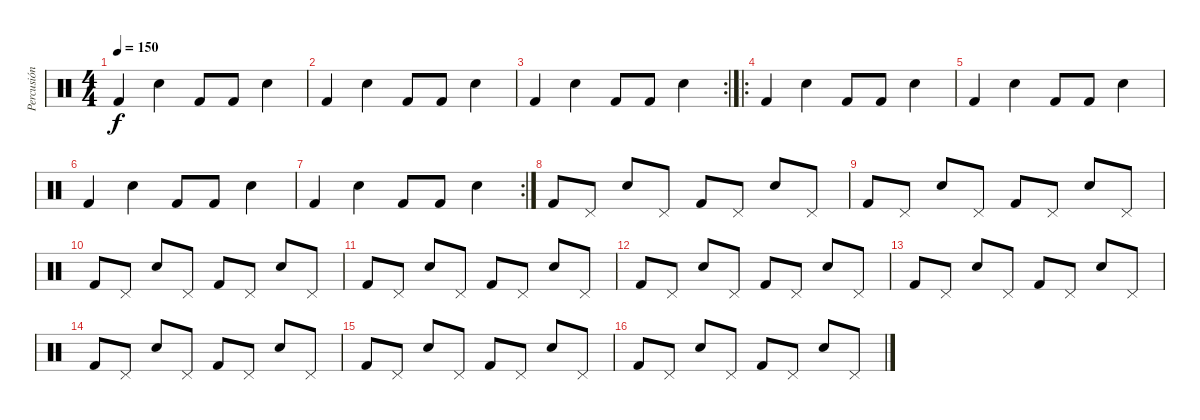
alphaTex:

\track ("Percusión" "Percusión") {instrument percussion}
\staff {score}
\articulation defaults
\ts (4 4)
\tempo 150
\clef neutral
\ks c "Kick (hit) 2".4{dy f} "Snare (hit) 2".4 "Kick (hit) 2".8 "Kick (hit) 2".8 "Snare (hit) 2".4
|
"Kick (hit) 2".4 "Snare (hit) 2".4 "Kick (hit) 2".8 "Kick (hit) 2".8 "Snare (hit) 2".4 |
\rc 2 "Kick (hit) 2".4 "Snare (hit) 2".4 "Kick (hit) 2".8 "Kick (hit) 2".8 "Snare (hit) 2".4
|
\ro "Kick (hit) 2".4 "Snare (hit) 2".4 "Kick (hit) 2".8 "Kick (hit) 2".8 "Snare (hit) 2".4
|
"Kick (hit) 2".4 "Snare (hit) 2".4 "Kick (hit) 2".8 "Kick (hit) 2".8 "Snare (hit) 2".4 |
"Kick (hit) 2".4 "Snare (hit) 2".4 "Kick (hit) 2".8 "Kick (hit) 2".8 "Snare (hit) 2".4 |
\rc 2 "Kick (hit) 2".4 "Snare (hit) 2".4 "Kick (hit) 2".8 "Kick (hit) 2".8 "Snare (hit) 2".4
|
"Kick (hit) 2".8 "Pedal Hi-Hat (hit)".8 "Snare (hit) 2".8 "Pedal Hi-Hat (hit)".8 "Kick (hit) 2".8 "Pedal Hi-Hat (hit)".8 "Snare (hit) 2".8 "Pedal Hi-Hat (hit)".8 |
"Kick (hit) 2".8 "Pedal Hi-Hat (hit)".8 "Snare (hit) 2".8 "Pedal Hi-Hat (hit)".8 "Kick (hit) 2".8 "Pedal Hi-Hat (hit)".8 "Snare (hit) 2".8 "Pedal Hi-Hat (hit)".8 |
"Kick (hit) 2".8 "Pedal Hi-Hat (hit)".8 "Snare (hit) 2".8 "Pedal Hi-Hat (hit)".8 "Kick (hit) 2".8 "Pedal Hi-Hat (hit)".8 "Snare (hit) 2".8 "Pedal Hi-Hat (hit)".8 |
"Kick (hit) 2".8 "Pedal Hi-Hat (hit)".8 "Snare (hit) 2".8 "Pedal Hi-Hat (hit)".8 "Kick (hit) 2".8 "Pedal Hi-Hat (hit)".8 "Snare (hit) 2".8 "Pedal Hi-Hat (hit)".8 |
"Kick (hit) 2".8 "Pedal Hi-Hat (hit)".8 "Snare (hit) 2".8 "Pedal Hi-Hat (hit)".8 "Kick (hit) 2".8 "Pedal Hi-Hat (hit)".8 "Snare (hit) 2".8 "Pedal Hi-Hat (hit)".8 |
"Kick (hit) 2".8 "Pedal Hi-Hat (hit)".8 "Snare (hit) 2".8 "Pedal Hi-Hat (hit)".8 "Kick (hit) 2".8 "Pedal Hi-Hat (hit)".8 "Snare (hit) 2".8 "Pedal Hi-Hat (hit)".8 |
"Kick (hit) 2".8 "Pedal Hi-Hat (hit)".8 "Snare (hit) 2".8 "Pedal Hi-Hat (hit)".8 "Kick (hit) 2".8 "Pedal Hi-Hat (hit)".8 "Snare (hit) 2".8 "Pedal Hi-Hat (hit)".8 |
"Kick (hit) 2".8 "Pedal Hi-Hat (hit)".8 "Snare (hit) 2".8 "Pedal Hi-Hat (hit)".8 "Kick (hit) 2".8 "Pedal Hi-Hat (hit)".8 "Snare (hit) 2".8 "Pedal Hi-Hat (hit)".8 |
"Kick (hit) 2".8 "Pedal Hi-Hat (hit)".8 "Snare (hit) 2".8 "Pedal Hi-Hat (hit)".8 "Kick (hit) 2".8 "Pedal Hi-Hat (hit)".8 "Snare (hit) 2".8 "Pedal Hi-Hat (hit)".8
